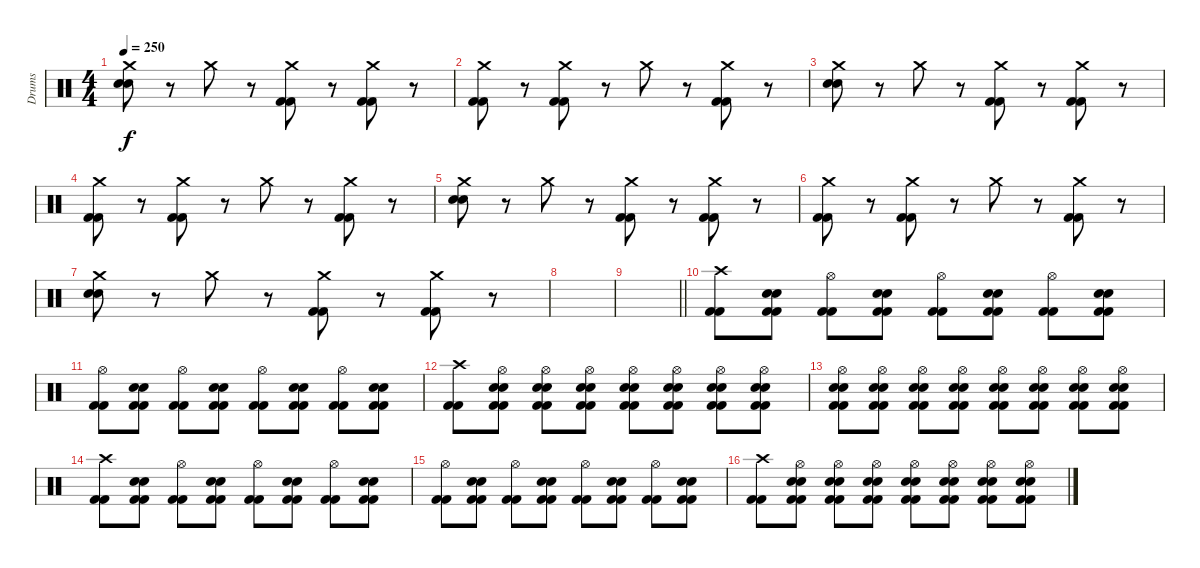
\track ("Drums" "Drums") {instrument percussion}
\staff {score}
\articulation defaults
\ts (4 4)
\tempo 250
\clef neutral
\ks c
("Electric Snare (hit)" "Electric Snare (hit)" "Crash medium (hit)").8{dy f} r.8 "Crash medium (hit)".8 r.8 ("Kick (hit) 2" "Kick (hit) 2" "Crash medium (hit)").8 r.8 ("Kick (hit) 2" "Kick (hit) 2" "Crash medium (hit)").8 r.8 |
("Kick (hit) 2" "Kick (hit) 2" "Crash medium (hit)").8 r.8 ("Kick (hit) 2" "Kick (hit) 2" "Crash medium (hit)").8 r.8 "Crash medium (hit)".8 r.8 ("Kick (hit) 2" "Kick (hit) 2" "Crash medium (hit)").8 r.8 |
("Electric Snare (hit)" "Electric Snare (hit)" "Crash medium (hit)").8 r.8 "Crash medium (hit)".8 r.8 ("Kick (hit) 2" "Kick (hit) 2" "Crash medium (hit)").8 r.8 ("Kick (hit) 2" "Kick (hit) 2" "Crash medium (hit)").8 r.8 |
("Kick (hit) 2" "Kick (hit) 2" "Crash medium (hit)").8 r.8 ("Kick (hit) 2" "Kick (hit) 2" "Crash medium (hit)").8 r.8 "Crash medium (hit)".8 r.8 ("Kick (hit) 2" "Kick (hit) 2" "Crash medium (hit)").8 r.8 |
("Electric Snare (hit)" "Electric Snare (hit)" "Crash medium (hit)").8 r.8 "Crash medium (hit)".8 r.8 ("Kick (hit) 2" "Kick (hit) 2" "Crash medium (hit)").8 r.8 ("Kick (hit) 2" "Kick (hit) 2" "Crash medium (hit)").8 r.8 |
("Kick (hit) 2" "Kick (hit) 2" "Crash medium (hit)").8 r.8 ("Kick (hit) 2" "Kick (hit) 2" "Crash medium (hit)").8 r.8 "Crash medium (hit)".8 r.8 ("Kick (hit) 2" "Kick (hit) 2" "Crash medium (hit)").8 r.8 |
("Electric Snare (hit)" "Electric Snare (hit)" "Crash medium (hit)").8 r.8 "Crash medium (hit)".8 r.8 ("Kick (hit) 2" "Kick (hit) 2" "Crash medium (hit)").8 r.8 ("Kick (hit) 2" "Kick (hit) 2" "Crash medium (hit)").8 r.8 |
|
\barLineRight lightlight
|
("Kick (hit) 2" "Kick (hit) 2" "Crash high (hit)").8 ("Kick (hit) 2" "Kick (hit) 2" "Electric Snare (hit)" "Electric Snare (hit)").8 ("Kick (hit) 2" "Kick (hit) 2" "Hi-Hat (open)").8 ("Kick (hit) 2" "Kick (hit) 2" "Electric Snare (hit)" "Electric Snare (hit)").8 ("Kick (hit) 2" "Kick (hit) 2" "Hi-Hat (open)").8 ("Kick (hit) 2" "Kick (hit) 2" "Electric Snare (hit)" "Electric Snare (hit)").8 ("Kick (hit) 2" "Kick (hit) 2" "Hi-Hat (open)").8 ("Kick (hit) 2" "Kick (hit) 2" "Electric Snare (hit)" "Electric Snare (hit)").8 |
("Kick (hit) 2" "Kick (hit) 2" "Hi-Hat (open)").8 ("Kick (hit) 2" "Kick (hit) 2" "Electric Snare (hit)" "Electric Snare (hit)").8 ("Kick (hit) 2" "Kick (hit) 2" "Hi-Hat (open)").8 ("Kick (hit) 2" "Kick (hit) 2" "Electric Snare (hit)" "Electric Snare (hit)").8 ("Kick (hit) 2" "Kick (hit) 2" "Hi-Hat (open)").8 ("Kick (hit) 2" "Kick (hit) 2" "Electric Snare (hit)" "Electric Snare (hit)").8 ("Kick (hit) 2" "Kick (hit) 2" "Hi-Hat (open)").8 ("Kick (hit) 2" "Kick (hit) 2" "Electric Snare (hit)" "Electric Snare (hit)").8 |
("Kick (hit) 2" "Kick (hit) 2" "Crash high (hit)").8 ("Kick (hit) 2" "Kick (hit) 2" "Electric Snare (hit)" "Electric Snare (hit)" "Hi-Hat (open)").8 ("Kick (hit) 2" "Kick (hit) 2" "Electric Snare (hit)" "Electric Snare (hit)" "Hi-Hat (open)").8 ("Kick (hit) 2" "Kick (hit) 2" "Electric Snare (hit)" "Electric Snare (hit)" "Hi-Hat (open)").8 ("Kick (hit) 2" "Kick (hit) 2" "Electric Snare (hit)" "Electric Snare (hit)" "Hi-Hat (open)").8 ("Kick (hit) 2" "Kick (hit) 2" "Electric Snare (hit)" "Electric Snare (hit)" "Hi-Hat (open)").8 ("Kick (hit) 2" "Kick (hit) 2" "Electric Snare (hit)" "Electric Snare (hit)" "Hi-Hat (open)").8 ("Kick (hit) 2" "Kick (hit) 2" "Electric Snare (hit)" "Electric Snare (hit)" "Hi-Hat (open)").8 |
("Kick (hit) 2" "Kick (hit) 2" "Electric Snare (hit)" "Electric Snare (hit)" "Hi-Hat (open)").8 ("Kick (hit) 2" "Kick (hit) 2" "Electric Snare (hit)" "Electric Snare (hit)" "Hi-Hat (open)").8 ("Kick (hit) 2" "Kick (hit) 2" "Electric Snare (hit)" "Electric Snare (hit)" "Hi-Hat (open)").8 ("Kick (hit) 2" "Kick (hit) 2" "Electric Snare (hit)" "Electric Snare (hit)" "Hi-Hat (open)").8 ("Kick (hit) 2" "Kick (hit) 2" "Electric Snare (hit)" "Electric Snare (hit)" "Hi-Hat (open)").8 ("Kick (hit) 2" "Kick (hit) 2" "Electric Snare (hit)" "Electric Snare (hit)" "Hi-Hat (open)").8 ("Kick (hit) 2" "Kick (hit) 2" "Electric Snare (hit)" "Electric Snare (hit)" "Hi-Hat (open)").8 ("Kick (hit) 2" "Kick (hit) 2" "Electric Snare (hit)" "Electric Snare (hit)" "Hi-Hat (open)").8 |
("Kick (hit) 2" "Kick (hit) 2" "Crash high (hit)").8 ("Kick (hit) 2" "Kick (hit) 2" "Electric Snare (hit)" "Electric Snare (hit)").8 ("Kick (hit) 2" "Kick (hit) 2" "Hi-Hat (open)").8 ("Kick (hit) 2" "Kick (hit) 2" "Electric Snare (hit)" "Electric Snare (hit)").8 ("Kick (hit) 2" "Kick (hit) 2" "Hi-Hat (open)").8 ("Kick (hit) 2" "Kick (hit) 2" "Electric Snare (hit)" "Electric Snare (hit)").8 ("Kick (hit) 2" "Kick (hit) 2" "Hi-Hat (open)").8 ("Kick (hit) 2" "Kick (hit) 2" "Electric Snare (hit)" "Electric Snare (hit)").8 |
("Kick (hit) 2" "Kick (hit) 2" "Hi-Hat (open)").8 ("Kick (hit) 2" "Kick (hit) 2" "Electric Snare (hit)" "Electric Snare (hit)").8 ("Kick (hit) 2" "Kick (hit) 2" "Hi-Hat (open)").8 ("Kick (hit) 2" "Kick (hit) 2" "Electric Snare (hit)" "Electric Snare (hit)").8 ("Kick (hit) 2" "Kick (hit) 2" "Hi-Hat (open)").8 ("Kick (hit) 2" "Kick (hit) 2" "Electric Snare (hit)" "Electric Snare (hit)").8 ("Kick (hit) 2" "Kick (hit) 2" "Hi-Hat (open)").8 ("Kick (hit) 2" "Kick (hit) 2" "Electric Snare (hit)" "Electric Snare (hit)").8 |
("Kick (hit) 2" "Kick (hit) 2" "Crash high (hit)").8 ("Kick (hit) 2" "Kick (hit) 2" "Electric Snare (hit)" "Electric Snare (hit)" "Hi-Hat (open)").8 ("Kick (hit) 2" "Kick (hit) 2" "Electric Snare (hit)" "Electric Snare (hit)" "Hi-Hat (open)").8 ("Kick (hit) 2" "Kick (hit) 2" "Electric Snare (hit)" "Electric Snare (hit)" "Hi-Hat (open)").8 ("Kick (hit) 2" "Kick (hit) 2" "Electric Snare (hit)" "Electric Snare (hit)" "Hi-Hat (open)").8 ("Kick (hit) 2" "Kick (hit) 2" "Electric Snare (hit)" "Electric Snare (hit)" "Hi-Hat (open)").8 ("Kick (hit) 2" "Kick (hit) 2" "Electric Snare (hit)" "Electric Snare (hit)" "Hi-Hat (open)").8 ("Kick (hit) 2" "Kick (hit) 2" "Electric Snare (hit)" "Electric Snare (hit)" "Hi-Hat (open)").8
